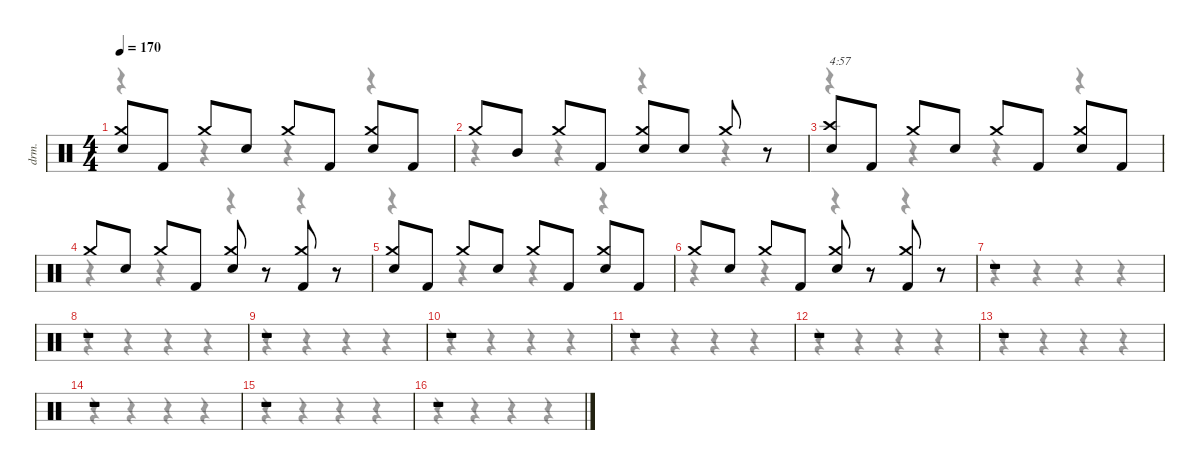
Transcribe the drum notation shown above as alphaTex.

\defaultSystemsLayout 4
\hideDynamics
\bracketExtendMode nobrackets
\otherSystemsTrackNameOrientation horizontal
\track ("Drums" "drm.") {instrument percussion}
\staff {score}
\articulation defaults
\voice
\ts (4 4)
\tempo 170
\clef neutral
\ks c
("Crash medium (hit)" "Snare (hit) 2").8{dy f beam Up} "Kick (hit) 2".8{beam Up} "Crash medium (hit)".8{beam Up} "Snare (hit) 2".8{beam Up} "Crash medium (hit)".8{beam Up} "Kick (hit) 2".8{beam Up} ("Crash medium (hit)" "Snare (hit) 2").8{beam Up} "Kick (hit) 2".8{beam Up} |
"Crash medium (hit)".8{beam Up} "Mid Tom (hit)".8{beam Up} "Crash medium (hit)".8{beam Up} "Kick (hit) 2".8{beam Up} ("Crash medium (hit)" "Snare (hit) 2").8{beam Up} "Snare (hit) 2".8{beam Up} "Crash medium (hit)".8{beam Up} r.8{beam Up} |
("Crash high (hit)" "Snare (hit) 2").8{txt "4:57" beam Up} "Kick (hit) 2".8{beam Up} "Crash medium (hit)".8{beam Up} "Snare (hit) 2".8{beam Up} "Crash medium (hit)".8{beam Up} "Kick (hit) 2".8{beam Up} ("Crash medium (hit)" "Snare (hit) 2").8{beam Up} "Kick (hit) 2".8{beam Up} |
"Crash medium (hit)".8{beam Up} "Snare (hit) 2".8{beam Up} "Crash medium (hit)".8{beam Up} "Kick (hit) 2".8{beam Up} ("Crash medium (hit)" "Snare (hit) 2").8{beam Up} r.8{beam Up} ("Crash medium (hit)" "Kick (hit) 2").8{beam Up} r.8{beam Up} |
("Crash medium (hit)" "Snare (hit) 2").8{beam Up} "Kick (hit) 2".8{beam Up} "Crash medium (hit)".8{beam Up} "Snare (hit) 2".8{beam Up} "Crash medium (hit)".8{beam Up} "Kick (hit) 2".8{beam Up} ("Crash medium (hit)" "Snare (hit) 2").8{beam Up} "Kick (hit) 2".8{beam Up} |
"Crash medium (hit)".8{beam Up} "Snare (hit) 2".8{beam Up} "Crash medium (hit)".8{beam Up} "Kick (hit) 2".8{beam Up} ("Crash medium (hit)" "Snare (hit) 2").8{beam Up} r.8{beam Up} ("Crash medium (hit)" "Kick (hit) 2").8{beam Up} r.8{beam Up} |
r.1{beam Up} |
r.1{beam Up} |
r.1{beam Up} |
r.1{beam Up} |
r.1{beam Up} |
r.1{beam Up} |
r.1{beam Up} |
r.1{beam Up} |
r.1{beam Up} |
r.1{beam Up}
\voice
\clef neutral
\ottava regular
\simile none
\ks c
r.4{dy mf beam Down} r.4{beam Down} r.4{beam Down} r.4{beam Down} |
r.4{beam Down} r.4{beam Down} r.4{beam Down} r.4{beam Down} |
r.4{beam Down} r.4{beam Down} r.4{beam Down} r.4{beam Down} |
r.4{beam Down} r.4{beam Down} r.4{beam Down} r.4{beam Down} |
r.4{beam Down} r.4{beam Down} r.4{beam Down} r.4{beam Down} |
r.4{beam Down} r.4{beam Down} r.4{beam Down} r.4{beam Down} |
r.4{beam Down} r.4{beam Down} r.4{beam Down} r.4{beam Down} |
r.4{beam Down} r.4{beam Down} r.4{beam Down} r.4{beam Down} |
r.4{beam Down} r.4{beam Down} r.4{beam Down} r.4{beam Down} |
r.4{beam Down} r.4{beam Down} r.4{beam Down} r.4{beam Down} |
r.4{beam Down} r.4{beam Down} r.4{beam Down} r.4{beam Down} |
r.4{beam Down} r.4{beam Down} r.4{beam Down} r.4{beam Down} |
r.4{beam Down} r.4{beam Down} r.4{beam Down} r.4{beam Down} |
r.4{beam Down} r.4{beam Down} r.4{beam Down} r.4{beam Down} |
r.4{beam Down} r.4{beam Down} r.4{beam Down} r.4{beam Down} |
r.4{beam Down} r.4{beam Down} r.4{beam Down} r.4{beam Down}
